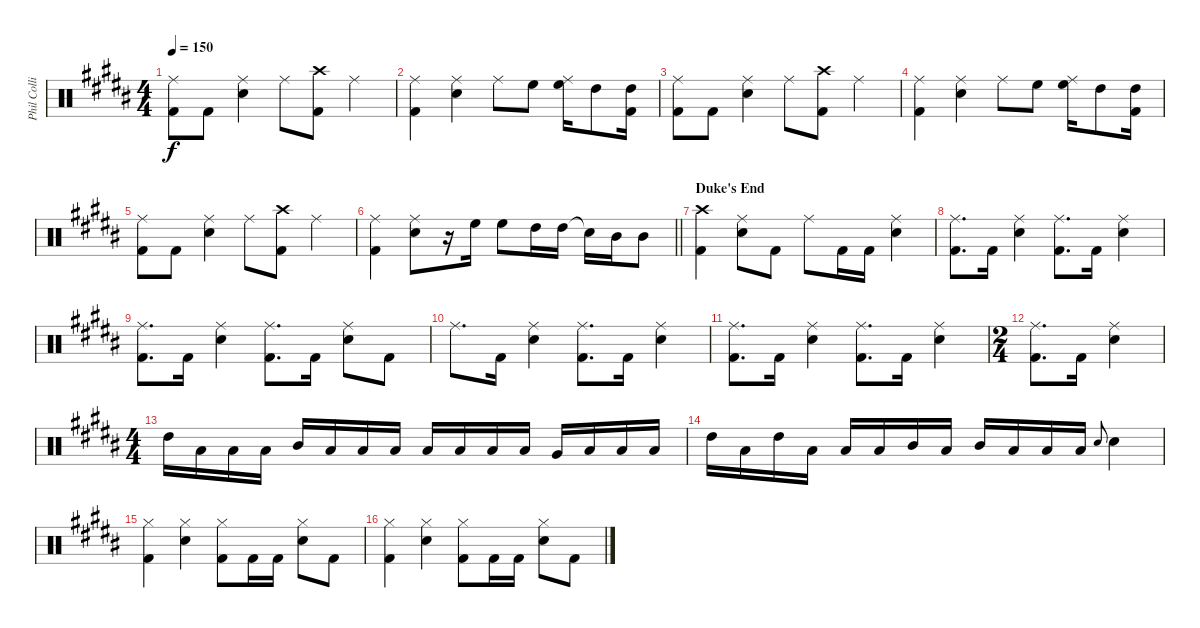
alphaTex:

\track ("Phil Collins [Drums]" "Phil Colli") {instrument percussion}
\staff {score}
\articulation defaults
\ts (4 4)
\tempo 150
\clef neutral
\ks b
("Ride (middle)" "Kick (hit) 2").8{dy f} "Kick (hit) 2".8 ("Ride (middle)" "Electric Snare (hit)").4 "Ride (middle)".8 ("Crash high (hit)" "Kick (hit) 2").8 "Ride (middle)".4 |
("Ride (middle)" "Kick (hit) 2").4 ("Ride (middle)" "Electric Snare (hit)").4 "Ride (middle)".8 "High Floor Tom (hit)".8 ("Ride (middle)" "High Floor Tom (hit)").16 "High Tom (hit)".8 ("High Tom (hit)" "Kick (hit) 2").16 |
("Ride (middle)" "Kick (hit) 2").8 "Kick (hit) 2".8 ("Ride (middle)" "Electric Snare (hit)").4 "Ride (middle)".8 ("Crash high (hit)" "Kick (hit) 2").8 "Ride (middle)".4 |
("Ride (middle)" "Kick (hit) 2").4 ("Ride (middle)" "Electric Snare (hit)").4 "Ride (middle)".8 "High Floor Tom (hit)".8 ("Ride (middle)" "High Floor Tom (hit)").16 "High Tom (hit)".8 ("High Tom (hit)" "Kick (hit) 2").16 |
("Ride (middle)" "Kick (hit) 2").8 "Kick (hit) 2".8 ("Ride (middle)" "Electric Snare (hit)").4 "Ride (middle)".8 ("Crash high (hit)" "Kick (hit) 2").8 "Ride (middle)".4 |
\barLineRight lightlight
("Ride (middle)" "Kick (hit) 2").4 ("Ride (middle)" "Electric Snare (hit)").8 r.16 "High Floor Tom (hit)".16 "High Floor Tom (hit)".8 "High Tom (hit)".16 "High Tom (hit)".16 "Snare (hit)"{t}.16 "Mid Tom (hit)".16 "Mid Tom (hit)".8 |
\section ("" "Duke's End")
("Crash high (hit)" "Kick (hit) 2").4 ("Ride (middle)" "Electric Snare (hit)").8 "Kick (hit) 2".8 "Ride (middle)".8 "Kick (hit) 2".16 "Kick (hit) 2".16 ("Ride (middle)" "Electric Snare (hit)").4 |
("Ride (middle)" "Kick (hit) 2").8{d} "Kick (hit) 2".16 ("Ride (middle)" "Electric Snare (hit)").4 ("Ride (middle)" "Kick (hit) 2").8{d} "Kick (hit) 2".16 ("Ride (middle)" "Electric Snare (hit)").4 |
("Ride (middle)" "Kick (hit) 2").8{d} "Kick (hit) 2".16 ("Ride (middle)" "Electric Snare (hit)").4 ("Ride (middle)" "Kick (hit) 2").8{d} "Kick (hit) 2".16 ("Ride (middle)" "Electric Snare (hit)").8 "Kick (hit) 2".8 |
"Ride (middle)".8{d} "Kick (hit) 2".16 ("Ride (middle)" "Electric Snare (hit)").4 ("Ride (middle)" "Kick (hit) 2").8{d} "Kick (hit) 2".16 ("Ride (middle)" "Electric Snare (hit)").4 |
("Ride (middle)" "Kick (hit) 2").8{d} "Kick (hit) 2".16 ("Ride (middle)" "Electric Snare (hit)").4 ("Ride (middle)" "Kick (hit) 2").8{d} "Kick (hit) 2".16 ("Ride (middle)" "Electric Snare (hit)").4 |
\ts (2 4)
("Ride (middle)" "Kick (hit) 2").8{d} "Kick (hit) 2".16 ("Ride (middle)" "Electric Snare (hit)").4 |
\ts (4 4)
"High Tom (hit)".16 "Low Floor Tom (hit)".16 "Low Floor Tom (hit)".16 "Low Floor Tom (hit)".16 "Mid Tom (hit)".16 "Low Floor Tom (hit)".16 "Low Floor Tom (hit)".16 "Low Floor Tom (hit)".16 "Low Tom (hit)".16 "Low Floor Tom (hit)".16 "Low Floor Tom (hit)".16 "Low Floor Tom (hit)".16 "Very Low Tom (hit)".16 "Low Floor Tom (hit)".16 "Low Floor Tom (hit)".16 "Low Floor Tom (hit)".16 |
"High Tom (hit)".16 "Low Floor Tom (hit)".16 "High Tom (hit)".16 "Low Floor Tom (hit)".16 "Low Floor Tom (hit)".16 "Low Floor Tom (hit)".16 "Mid Tom (hit)".16 "Low Floor Tom (hit)".16 "Mid Tom (hit)".16 "Low Floor Tom (hit)".16 "Low Floor Tom (hit)".16 "Low Floor Tom (hit)".16 "Electric Snare (hit)".8{gr onbeat} "Electric Snare (hit)".4 |
("Hi-Hat (closed)" "Kick (hit) 2").4 ("Hi-Hat (closed)" "Electric Snare (hit)").4 ("Hi-Hat (closed)" "Kick (hit) 2").8 "Kick (hit) 2".16 "Kick (hit) 2".16 ("Hi-Hat (closed)" "Electric Snare (hit)").8 "Kick (hit) 2".8 |
("Hi-Hat (closed)" "Kick (hit) 2").4 ("Hi-Hat (closed)" "Electric Snare (hit)").4 ("Hi-Hat (closed)" "Kick (hit) 2").8 "Kick (hit) 2".16 "Kick (hit) 2".16 ("Hi-Hat (closed)" "Electric Snare (hit)").8 "Kick (hit) 2".8
